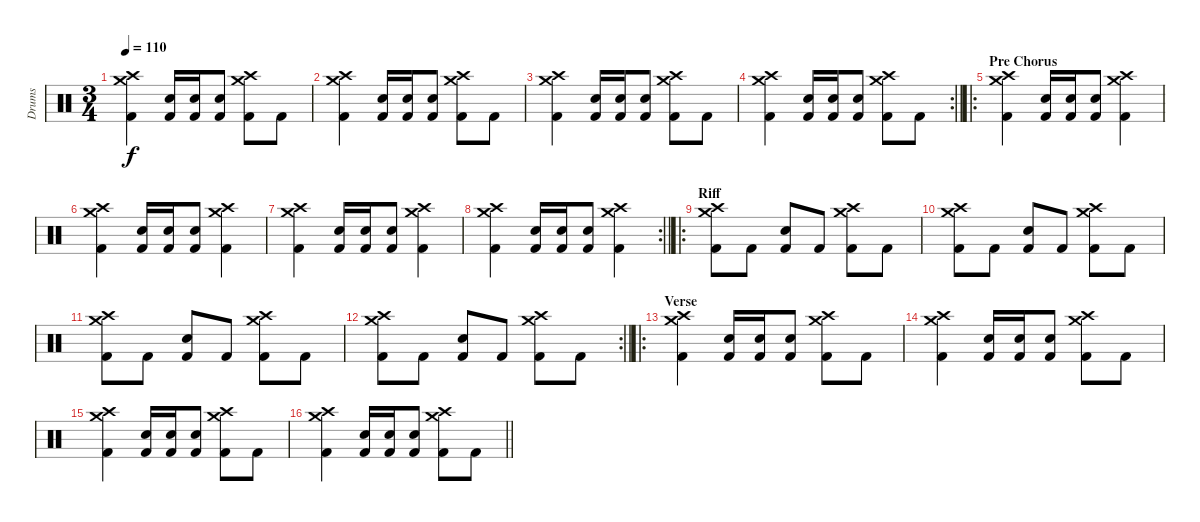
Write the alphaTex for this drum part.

\track ("Drums" "Drums") {instrument percussion}
\staff {score}
\articulation defaults
\ts (3 4)
\tempo 110
\clef neutral
\ks c
("Crash high (hit)" "Crash medium (hit)" "Kick (hit) 2").4{dy f} ("Electric Snare (hit)" "Kick (hit) 2").16 ("Electric Snare (hit)" "Kick (hit) 2").16 ("Electric Snare (hit)" "Kick (hit) 2").8 ("Crash high (hit)" "Crash medium (hit)" "Kick (hit) 2").8 "Kick (hit) 2".8 |
("Crash high (hit)" "Crash medium (hit)" "Kick (hit) 2").4 ("Electric Snare (hit)" "Kick (hit) 2").16 ("Electric Snare (hit)" "Kick (hit) 2").16 ("Electric Snare (hit)" "Kick (hit) 2").8 ("Crash high (hit)" "Crash medium (hit)" "Kick (hit) 2").8 "Kick (hit) 2".8 |
("Crash high (hit)" "Crash medium (hit)" "Kick (hit) 2").4 ("Electric Snare (hit)" "Kick (hit) 2").16 ("Electric Snare (hit)" "Kick (hit) 2").16 ("Electric Snare (hit)" "Kick (hit) 2").8 ("Crash high (hit)" "Crash medium (hit)" "Kick (hit) 2").8 "Kick (hit) 2".8 |
\rc 2
\barLineRight lightlight
("Crash high (hit)" "Crash medium (hit)" "Kick (hit) 2").4 ("Electric Snare (hit)" "Kick (hit) 2").16 ("Electric Snare (hit)" "Kick (hit) 2").16 ("Electric Snare (hit)" "Kick (hit) 2").8 ("Crash high (hit)" "Crash medium (hit)" "Kick (hit) 2").8 "Kick (hit) 2".8 |
\ro
\section ("" "Pre Chorus")
("Crash high (hit)" "Crash medium (hit)" "Kick (hit) 2").4 ("Electric Snare (hit)" "Kick (hit) 2").16 ("Electric Snare (hit)" "Kick (hit) 2").16 ("Electric Snare (hit)" "Kick (hit) 2").8 ("Crash high (hit)" "Crash medium (hit)" "Kick (hit) 2").4 |
("Crash high (hit)" "Crash medium (hit)" "Kick (hit) 2").4 ("Electric Snare (hit)" "Kick (hit) 2").16 ("Electric Snare (hit)" "Kick (hit) 2").16 ("Electric Snare (hit)" "Kick (hit) 2").8 ("Crash high (hit)" "Crash medium (hit)" "Kick (hit) 2").4 |
("Crash high (hit)" "Crash medium (hit)" "Kick (hit) 2").4 ("Electric Snare (hit)" "Kick (hit) 2").16 ("Electric Snare (hit)" "Kick (hit) 2").16 ("Electric Snare (hit)" "Kick (hit) 2").8 ("Crash high (hit)" "Crash medium (hit)" "Kick (hit) 2").4 |
\rc 2
\barLineRight lightlight
("Crash high (hit)" "Crash medium (hit)" "Kick (hit) 2").4 ("Electric Snare (hit)" "Kick (hit) 2").16 ("Electric Snare (hit)" "Kick (hit) 2").16 ("Electric Snare (hit)" "Kick (hit) 2").8 ("Crash high (hit)" "Crash medium (hit)" "Kick (hit) 2").4 |
\ro
\section ("" "Riff")
("Crash high (hit)" "Crash medium (hit)" "Kick (hit) 2").8 "Kick (hit) 2".8 ("Electric Snare (hit)" "Kick (hit) 2").8 "Kick (hit) 2".8 ("Crash high (hit)" "Crash medium (hit)" "Kick (hit) 2").8 "Kick (hit) 2".8 |
("Crash high (hit)" "Crash medium (hit)" "Kick (hit) 2").8 "Kick (hit) 2".8 ("Electric Snare (hit)" "Kick (hit) 2").8 "Kick (hit) 2".8 ("Crash high (hit)" "Crash medium (hit)" "Kick (hit) 2").8 "Kick (hit) 2".8 |
("Crash high (hit)" "Crash medium (hit)" "Kick (hit) 2").8 "Kick (hit) 2".8 ("Electric Snare (hit)" "Kick (hit) 2").8 "Kick (hit) 2".8 ("Crash high (hit)" "Crash medium (hit)" "Kick (hit) 2").8 "Kick (hit) 2".8 |
\rc 2
\barLineRight lightlight
("Crash high (hit)" "Crash medium (hit)" "Kick (hit) 2").8 "Kick (hit) 2".8 ("Electric Snare (hit)" "Kick (hit) 2").8 "Kick (hit) 2".8 ("Crash high (hit)" "Crash medium (hit)" "Kick (hit) 2").8 "Kick (hit) 2".8 |
\ro
\section ("" "Verse")
("Crash high (hit)" "Crash medium (hit)" "Kick (hit) 2").4 ("Electric Snare (hit)" "Kick (hit) 2").16 ("Electric Snare (hit)" "Kick (hit) 2").16 ("Electric Snare (hit)" "Kick (hit) 2").8 ("Crash high (hit)" "Crash medium (hit)" "Kick (hit) 2").8 "Kick (hit) 2".8 |
("Crash high (hit)" "Crash medium (hit)" "Kick (hit) 2").4 ("Electric Snare (hit)" "Kick (hit) 2").16 ("Electric Snare (hit)" "Kick (hit) 2").16 ("Electric Snare (hit)" "Kick (hit) 2").8 ("Crash high (hit)" "Crash medium (hit)" "Kick (hit) 2").8 "Kick (hit) 2".8 |
("Crash high (hit)" "Crash medium (hit)" "Kick (hit) 2").4 ("Electric Snare (hit)" "Kick (hit) 2").16 ("Electric Snare (hit)" "Kick (hit) 2").16 ("Electric Snare (hit)" "Kick (hit) 2").8 ("Crash high (hit)" "Crash medium (hit)" "Kick (hit) 2").8 "Kick (hit) 2".8 |
\barLineRight lightlight
("Crash high (hit)" "Crash medium (hit)" "Kick (hit) 2").4 ("Electric Snare (hit)" "Kick (hit) 2").16 ("Electric Snare (hit)" "Kick (hit) 2").16 ("Electric Snare (hit)" "Kick (hit) 2").8 ("Crash high (hit)" "Crash medium (hit)" "Kick (hit) 2").8 "Kick (hit) 2".8
